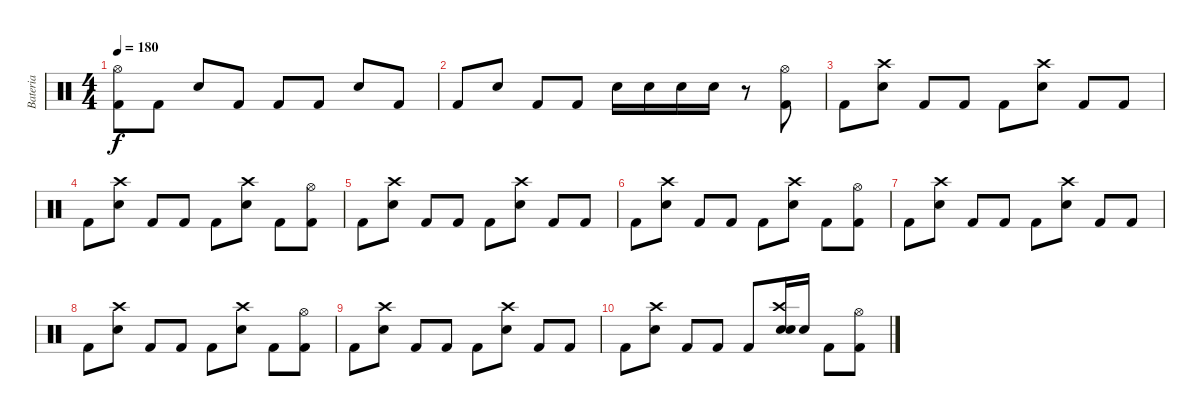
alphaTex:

\track ("Bateria" "Bateria") {instrument percussion}
\staff {score}
\articulation defaults
\ts (4 4)
\tempo 180
\clef neutral
\ks c
("Kick (hit) 2" "Hi-Hat (open)").8{dy f} "Kick (hit) 2".8 "Electric Snare (hit)".8 "Kick (hit) 2".8 "Kick (hit) 2".8 "Kick (hit) 2".8 "Electric Snare (hit)".8 "Kick (hit) 2".8 |
"Kick (hit) 2".8 "Electric Snare (hit)".8 "Kick (hit) 2".8 "Kick (hit) 2".8 "Electric Snare (hit)".16 "Electric Snare (hit)".16 "Electric Snare (hit)".16 "Electric Snare (hit)".16 r.8 ("Kick (hit) 2" "Hi-Hat (open)").8 |
"Kick (hit) 2".8 ("Electric Snare (hit)" "Crash high (hit)").8 "Kick (hit) 2".8 "Kick (hit) 2".8 "Kick (hit) 2".8 ("Electric Snare (hit)" "Crash high (hit)").8 "Kick (hit) 2".8 "Kick (hit) 2".8 |
"Kick (hit) 2".8 ("Electric Snare (hit)" "Crash high (hit)").8 "Kick (hit) 2".8 "Kick (hit) 2".8 "Kick (hit) 2".8 ("Electric Snare (hit)" "Crash high (hit)").8 "Kick (hit) 2".8 ("Kick (hit) 2" "Hi-Hat (open)").8 |
"Kick (hit) 2".8 ("Electric Snare (hit)" "Crash high (hit)").8 "Kick (hit) 2".8 "Kick (hit) 2".8 "Kick (hit) 2".8 ("Electric Snare (hit)" "Crash high (hit)").8 "Kick (hit) 2".8 "Kick (hit) 2".8 |
"Kick (hit) 2".8 ("Electric Snare (hit)" "Crash high (hit)").8 "Kick (hit) 2".8 "Kick (hit) 2".8 "Kick (hit) 2".8 ("Electric Snare (hit)" "Crash high (hit)").8 "Kick (hit) 2".8 ("Kick (hit) 2" "Hi-Hat (open)").8 |
"Kick (hit) 2".8 ("Electric Snare (hit)" "Crash high (hit)").8 "Kick (hit) 2".8 "Kick (hit) 2".8 "Kick (hit) 2".8 ("Electric Snare (hit)" "Crash high (hit)").8 "Kick (hit) 2".8 "Kick (hit) 2".8 |
"Kick (hit) 2".8 ("Electric Snare (hit)" "Crash high (hit)").8 "Kick (hit) 2".8 "Kick (hit) 2".8 "Kick (hit) 2".8 ("Electric Snare (hit)" "Crash high (hit)").8 "Kick (hit) 2".8 ("Kick (hit) 2" "Hi-Hat (open)").8 |
"Kick (hit) 2".8 ("Electric Snare (hit)" "Crash high (hit)").8 "Kick (hit) 2".8 "Kick (hit) 2".8 "Kick (hit) 2".8 ("Electric Snare (hit)" "Crash high (hit)").8 "Kick (hit) 2".8 "Kick (hit) 2".8 |
"Kick (hit) 2".8 ("Electric Snare (hit)" "Crash high (hit)").8 "Kick (hit) 2".8 "Kick (hit) 2".8 "Kick (hit) 2".8 ("Electric Snare (hit)" "Snare (hit) 2" "Crash high (hit)").16 "Electric Snare (hit)".16 "Kick (hit) 2".8 ("Kick (hit) 2" "Hi-Hat (open)").8
